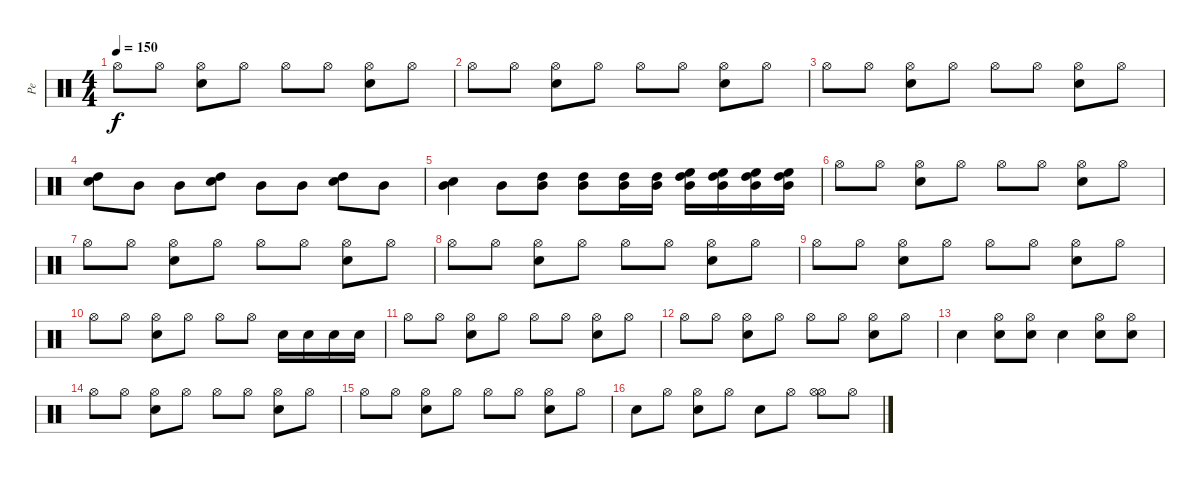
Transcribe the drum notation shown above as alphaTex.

\track ("Pe" "Pe") {instrument percussion}
\staff {score}
\articulation defaults
\ts (4 4)
\tempo 150
\clef neutral
\ks c "Hi-Hat (open)".8{dy f} "Hi-Hat (open)".8
("Electric Snare (hit)" "Hi-Hat (open)").8 "Hi-Hat (open)".8 "Hi-Hat (open)".8 "Hi-Hat (open)".8 ("Electric Snare (hit)" "Hi-Hat (open)").8 "Hi-Hat (open)".8 |
"Hi-Hat (open)".8 "Hi-Hat (open)".8 ("Electric Snare (hit)" "Hi-Hat (open)").8 "Hi-Hat (open)".8 "Hi-Hat (open)".8 "Hi-Hat (open)".8 ("Electric Snare (hit)" "Hi-Hat (open)").8 "Hi-Hat (open)".8 |
"Hi-Hat (open)".8 "Hi-Hat (open)".8 ("Electric Snare (hit)" "Hi-Hat (open)").8 "Hi-Hat (open)".8 "Hi-Hat (open)".8 "Hi-Hat (open)".8 ("Electric Snare (hit)" "Hi-Hat (open)").8 "Hi-Hat (open)".8 |
("High Tom (hit)" "Electric Snare (hit)").8 "Mid Tom (hit)".8 "Mid Tom (hit)".8 ("High Tom (hit)" "Electric Snare (hit)").8 "Mid Tom (hit)".8 "Mid Tom (hit)".8 ("High Tom (hit)" "Electric Snare (hit)").8 "Mid Tom (hit)".8 |
("Mid Tom (hit)" "Electric Snare (hit)").4 "Mid Tom (hit)".8 ("Mid Tom (hit)" "High Tom (hit)").8 ("Mid Tom (hit)" "High Tom (hit)").8 ("Mid Tom (hit)" "High Tom (hit)").16 ("Mid Tom (hit)" "High Tom (hit)").16 ("Mid Tom (hit)" "High Tom (hit)" "High Floor Tom (hit)").16 ("Mid Tom (hit)" "High Tom (hit)" "High Floor Tom (hit)").16 ("Mid Tom (hit)" "High Tom (hit)" "High Floor Tom (hit)").16 ("Mid Tom (hit)" "High Tom (hit)" "High Floor Tom (hit)").16 |
"Hi-Hat (open)".8 "Hi-Hat (open)".8 ("Electric Snare (hit)" "Hi-Hat (open)").8 "Hi-Hat (open)".8 "Hi-Hat (open)".8 "Hi-Hat (open)".8 ("Electric Snare (hit)" "Hi-Hat (open)").8 "Hi-Hat (open)".8 |
"Hi-Hat (open)".8 "Hi-Hat (open)".8 ("Electric Snare (hit)" "Hi-Hat (open)").8 "Hi-Hat (open)".8 "Hi-Hat (open)".8 "Hi-Hat (open)".8 ("Electric Snare (hit)" "Hi-Hat (open)").8 "Hi-Hat (open)".8 |
"Hi-Hat (open)".8 "Hi-Hat (open)".8 ("Electric Snare (hit)" "Hi-Hat (open)").8 "Hi-Hat (open)".8 "Hi-Hat (open)".8 "Hi-Hat (open)".8 ("Electric Snare (hit)" "Hi-Hat (open)").8 "Hi-Hat (open)".8 |
"Hi-Hat (open)".8 "Hi-Hat (open)".8 ("Electric Snare (hit)" "Hi-Hat (open)").8 "Hi-Hat (open)".8 "Hi-Hat (open)".8 "Hi-Hat (open)".8 ("Electric Snare (hit)" "Hi-Hat (open)").8 "Hi-Hat (open)".8 |
"Hi-Hat (open)".8 "Hi-Hat (open)".8 ("Electric Snare (hit)" "Hi-Hat (open)").8 "Hi-Hat (open)".8 "Hi-Hat (open)".8 "Hi-Hat (open)".8 "Electric Snare (hit)".16 "Electric Snare (hit)".16 "Electric Snare (hit)".16 "Electric Snare (hit)".16 |
"Hi-Hat (open)".8 "Hi-Hat (open)".8 ("Electric Snare (hit)" "Hi-Hat (open)").8 "Hi-Hat (open)".8 "Hi-Hat (open)".8 "Hi-Hat (open)".8 ("Electric Snare (hit)" "Hi-Hat (open)").8 "Hi-Hat (open)".8 |
"Hi-Hat (open)".8 "Hi-Hat (open)".8 ("Electric Snare (hit)" "Hi-Hat (open)").8 "Hi-Hat (open)".8 "Hi-Hat (open)".8 "Hi-Hat (open)".8 ("Electric Snare (hit)" "Hi-Hat (open)").8 "Hi-Hat (open)".8 |
"Electric Snare (hit)".4 ("Electric Snare (hit)" "Hi-Hat (open)").8 ("Electric Snare (hit)" "Hi-Hat (open)").8 "Electric Snare (hit)".4 ("Electric Snare (hit)" "Hi-Hat (open)").8 ("Electric Snare (hit)" "Hi-Hat (open)").8 |
"Hi-Hat (open)".8 "Hi-Hat (open)".8 ("Electric Snare (hit)" "Hi-Hat (open)").8 "Hi-Hat (open)".8 "Hi-Hat (open)".8 "Hi-Hat (open)".8 ("Electric Snare (hit)" "Hi-Hat (open)").8 "Hi-Hat (open)".8 |
"Hi-Hat (open)".8 "Hi-Hat (open)".8 ("Electric Snare (hit)" "Hi-Hat (open)").8 "Hi-Hat (open)".8 "Hi-Hat (open)".8 "Hi-Hat (open)".8 ("Electric Snare (hit)" "Hi-Hat (open)").8 "Hi-Hat (open)".8 |
"Electric Snare (hit)".8 "Hi-Hat (open)".8 ("Electric Snare (hit)" "Hi-Hat (open)").8 "Hi-Hat (open)".8 "Electric Snare (hit)".8 "Hi-Hat (open)".8 ("Hi-Hat (open)" "Hi-Hat (open)").8 "Hi-Hat (open)".8
